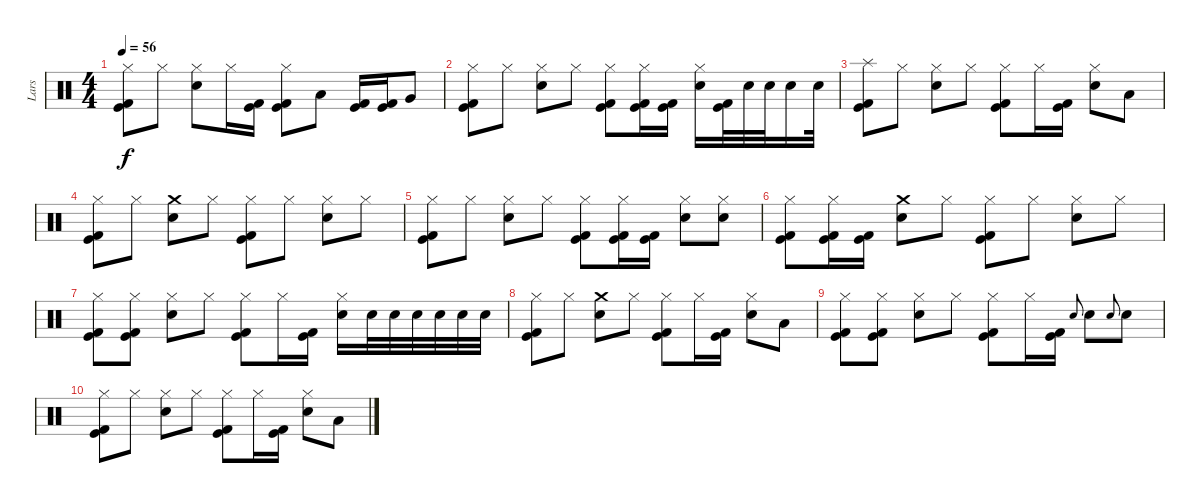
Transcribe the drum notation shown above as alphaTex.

\track ("Lars" "Lars") {instrument percussion}
\staff {score}
\articulation defaults
\ts (4 4)
\tempo 56
\clef neutral
\ks c
("Hi-Hat (closed)" "Kick (hit)" "Kick (hit) 2").8{dy f} "Hi-Hat (closed)".8 ("Hi-Hat (closed)" "Electric Snare (hit)").8 "Hi-Hat (closed)".16 ("Kick (hit)" "Kick (hit) 2").16 ("Hi-Hat (closed)" "Kick (hit)" "Kick (hit) 2").8 "Low Tom (hit)".8 ("Kick (hit)" "Kick (hit) 2").16 ("Kick (hit)" "Kick (hit) 2").16 "Very Low Tom (hit)".8 |
("Hi-Hat (closed)" "Kick (hit)" "Kick (hit) 2").8 "Hi-Hat (closed)".8 ("Hi-Hat (closed)" "Electric Snare (hit)").8 "Hi-Hat (closed)".8 ("Hi-Hat (closed)" "Kick (hit)" "Kick (hit) 2").8 ("Hi-Hat (closed)" "Kick (hit)" "Kick (hit) 2").16 ("Kick (hit)" "Kick (hit) 2").16 ("Hi-Hat (closed)" "Electric Snare (hit)").16 ("Kick (hit)" "Kick (hit) 2").32 "Electric Snare (hit)".32 "Electric Snare (hit)".32 "Electric Snare (hit)".16 "Electric Snare (hit)".32 |
("Splash (hit)" "Kick (hit)" "Kick (hit) 2").8 "Hi-Hat (closed)".8 ("Hi-Hat (closed)" "Electric Snare (hit)").8 "Hi-Hat (closed)".8 ("Hi-Hat (closed)" "Kick (hit)" "Kick (hit) 2").8 "Hi-Hat (closed)".16 ("Kick (hit)" "Kick (hit) 2").16 ("Hi-Hat (closed)" "Electric Snare (hit)").8 "Low Tom (hit)".8 |
("Hi-Hat (closed)" "Kick (hit)" "Kick (hit) 2").8 "Hi-Hat (closed)".8 ("Crash medium (hit)" "Electric Snare (hit)").8 "Hi-Hat (closed)".8 ("Hi-Hat (closed)" "Kick (hit)" "Kick (hit) 2").8 "Hi-Hat (closed)".8 ("Hi-Hat (closed)" "Electric Snare (hit)").8 "Hi-Hat (closed)".8 |
("Hi-Hat (closed)" "Kick (hit)" "Kick (hit) 2").8 "Hi-Hat (closed)".8 ("Hi-Hat (closed)" "Electric Snare (hit)").8 "Hi-Hat (closed)".8 ("Hi-Hat (closed)" "Kick (hit)" "Kick (hit) 2").8 ("Hi-Hat (closed)" "Kick (hit)" "Kick (hit) 2").16 ("Kick (hit)" "Kick (hit) 2").16 ("Hi-Hat (closed)" "Electric Snare (hit)").8 ("Hi-Hat (closed)" "Electric Snare (hit)").8 |
("Hi-Hat (closed)" "Kick (hit)" "Kick (hit) 2").8 ("Hi-Hat (closed)" "Kick (hit)" "Kick (hit) 2").16 ("Kick (hit)" "Kick (hit) 2").16 ("Crash medium (hit)" "Electric Snare (hit)").8 "Hi-Hat (closed)".8 ("Hi-Hat (closed)" "Kick (hit)" "Kick (hit) 2").8 "Hi-Hat (closed)".8 ("Hi-Hat (closed)" "Electric Snare (hit)").8 "Hi-Hat (closed)".8 |
("Hi-Hat (closed)" "Kick (hit)" "Kick (hit) 2").8 ("Hi-Hat (closed)" "Kick (hit)" "Kick (hit) 2").8 ("Hi-Hat (closed)" "Electric Snare (hit)").8 "Hi-Hat (closed)".8 ("Hi-Hat (closed)" "Kick (hit)" "Kick (hit) 2").8 "Hi-Hat (closed)".16 ("Kick (hit)" "Kick (hit) 2").16 ("Hi-Hat (closed)" "Electric Snare (hit)").16 "Electric Snare (hit)".32 "Electric Snare (hit)".32 "Electric Snare (hit)".32 "Electric Snare (hit)".32 "Electric Snare (hit)".32 "Electric Snare (hit)".32 |
("Hi-Hat (closed)" "Kick (hit)" "Kick (hit) 2").8 "Hi-Hat (closed)".8 ("Crash medium (hit)" "Electric Snare (hit)").8 "Hi-Hat (closed)".8 ("Hi-Hat (closed)" "Kick (hit)" "Kick (hit) 2").8 "Hi-Hat (closed)".16 ("Kick (hit)" "Kick (hit) 2").16 ("Hi-Hat (closed)" "Electric Snare (hit)").8 "Low Tom (hit)".8 |
("Hi-Hat (closed)" "Kick (hit)" "Kick (hit) 2").8{volume 0} ("Hi-Hat (closed)" "Kick (hit)" "Kick (hit) 2").8 ("Hi-Hat (closed)" "Electric Snare (hit)").8 "Hi-Hat (closed)".8 ("Hi-Hat (closed)" "Kick (hit)" "Kick (hit) 2").8 "Hi-Hat (closed)".16 ("Kick (hit)" "Kick (hit) 2").16 "Electric Snare (hit)".8{gr onbeat} "Electric Snare (hit)".8 "Electric Snare (hit)".8{gr onbeat} "Electric Snare (hit)".8 |
("Hi-Hat (closed)" "Kick (hit)" "Kick (hit) 2").8 "Hi-Hat (closed)".8 ("Hi-Hat (closed)" "Electric Snare (hit)").8 "Hi-Hat (closed)".8 ("Hi-Hat (closed)" "Kick (hit)" "Kick (hit) 2").8 "Hi-Hat (closed)".16 ("Kick (hit)" "Kick (hit) 2").16 ("Hi-Hat (closed)" "Electric Snare (hit)").8 "Low Tom (hit)".8
